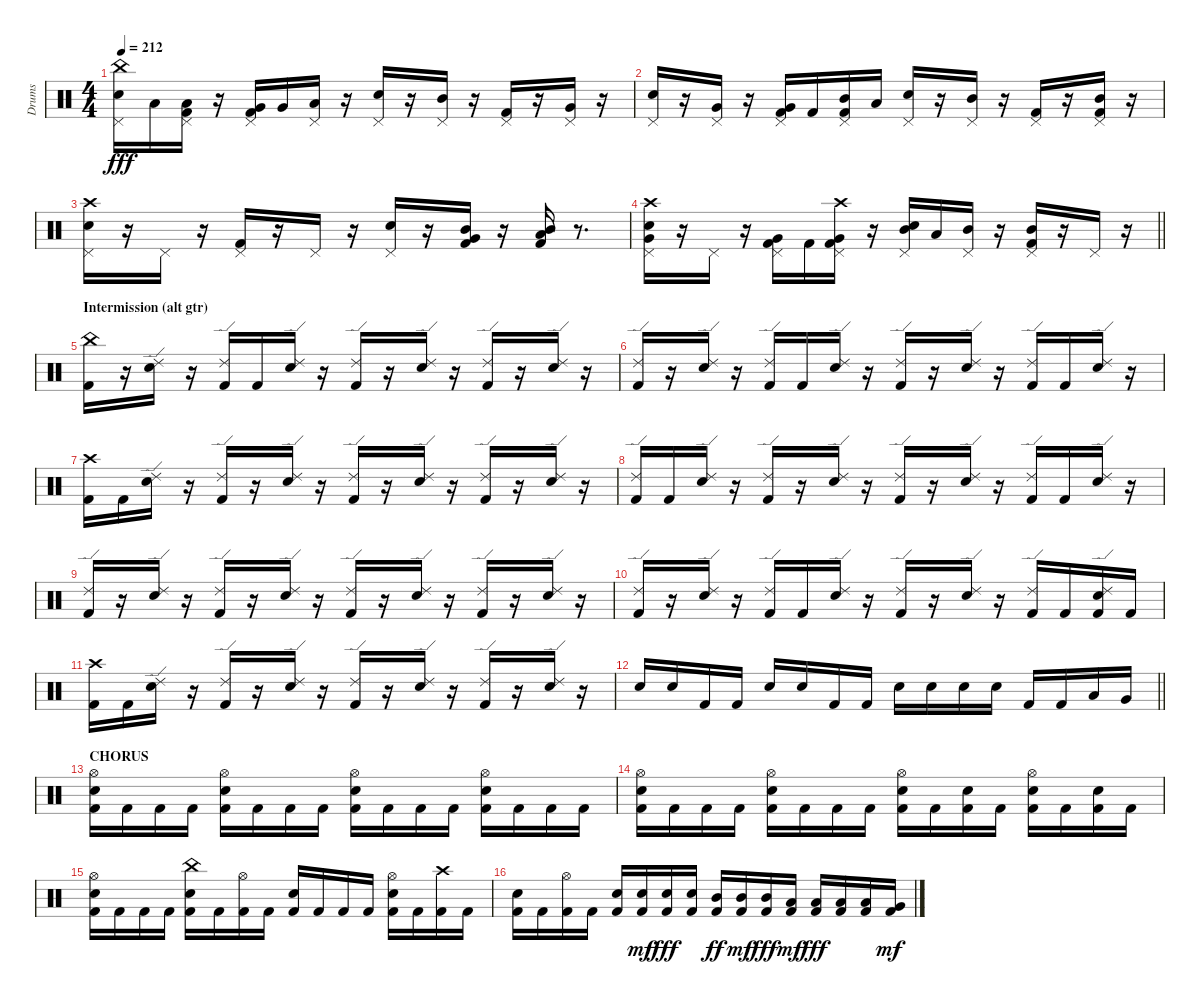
\track ("Drums" "Drums") {instrument percussion}
\staff {score}
\articulation defaults
\ts (4 4)
\tempo 212
\clef neutral
\ks c
("Snare (hit) 2" "Pedal Hi-Hat (hit)" "China (hit)").16{dy fff} "Low Tom (hit)".16 ("Kick (hit) 2" "Pedal Hi-Hat (hit)" "Low Tom (hit)").16 r.16 ("Kick (hit) 2" "Pedal Hi-Hat (hit)" "Very Low Tom (hit)").16 "Very Low Tom (hit)".16 ("Pedal Hi-Hat (hit)" "Low Floor Tom (hit)").16 r.16 ("Snare (hit) 2" "Pedal Hi-Hat (hit)").16 r.16 ("Pedal Hi-Hat (hit)" "Mid Tom (hit)").16 r.16 ("Kick (hit) 2" "Pedal Hi-Hat (hit)").16 r.16 ("Pedal Hi-Hat (hit)" "Very Low Tom (hit)").16 r.16 |
("Snare (hit) 2" "Pedal Hi-Hat (hit)").16 r.16 ("Pedal Hi-Hat (hit)" "Very Low Tom (hit)").16 r.16 ("Kick (hit) 2" "Pedal Hi-Hat (hit)" "Very Low Tom (hit)").16 "Kick (hit) 2".16 ("Kick (hit) 2" "Pedal Hi-Hat (hit)" "Mid Tom (hit)").16 "Low Tom (hit)".16 ("Snare (hit) 2" "Pedal Hi-Hat (hit)").16 r.16 ("Pedal Hi-Hat (hit)" "Mid Tom (hit)").16 r.16 ("Kick (hit) 2" "Pedal Hi-Hat (hit)").16 r.16 ("Kick (hit) 2" "Pedal Hi-Hat (hit)" "Mid Tom (hit)").16 r.16 |
("Snare (hit) 2" "Pedal Hi-Hat (hit)" "Crash high (hit)").16 r.16 "Pedal Hi-Hat (hit)".16 r.16 ("Kick (hit) 2" "Pedal Hi-Hat (hit)").16 r.16 "Pedal Hi-Hat (hit)".16 r.16 ("Snare (hit) 2" "Pedal Hi-Hat (hit)").16 r.16 ("Kick (hit) 2" "Very Low Tom (hit)" "Mid Tom (hit)").16 r.16 ("Kick (hit) 2" "Low Floor Tom (hit)" "Mid Tom (hit)").16 r.8{d} |
\barLineRight lightlight
("Snare (hit) 2" "Pedal Hi-Hat (hit)" "Very Low Tom (hit)" "Crash high (hit)").16 r.16 "Pedal Hi-Hat (hit)".16 r.16 ("Kick (hit) 2" "Pedal Hi-Hat (hit)" "Very Low Tom (hit)").16 "Kick (hit) 2".16 ("Kick (hit) 2" "Pedal Hi-Hat (hit)" "Very Low Tom (hit)" "Crash high (hit)").16 r.16 ("Snare (hit) 2" "Pedal Hi-Hat (hit)" "Mid Tom (hit)").16 "Low Tom (hit)".16 ("Pedal Hi-Hat (hit)" "Mid Tom (hit)").16 r.16 ("Kick (hit) 2" "Pedal Hi-Hat (hit)" "Mid Tom (hit)").16 r.16 "Pedal Hi-Hat (hit)".16 r.16 |
\section ("" "Intermission (alt gtr)")
("Kick (hit) 2" "China (hit)").16 r.16 ("Snare (hit) 2" "Ride (edge) 2").16 r.16 ("Kick (hit) 2" "Ride (edge) 2").16 "Kick (hit) 2".16 ("Snare (hit) 2" "Ride (edge) 2").16 r.16 ("Kick (hit) 2" "Ride (edge) 2").16 r.16 ("Snare (hit) 2" "Ride (edge) 2").16 r.16 ("Kick (hit) 2" "Ride (edge) 2").16 r.16 ("Snare (hit) 2" "Ride (edge) 2").16 r.16 |
("Kick (hit) 2" "Ride (edge) 2").16 r.16 ("Snare (hit) 2" "Ride (edge) 2").16 r.16 ("Kick (hit) 2" "Ride (edge) 2").16 "Kick (hit) 2".16 ("Snare (hit) 2" "Ride (edge) 2").16 r.16 ("Kick (hit) 2" "Ride (edge) 2").16 r.16 ("Snare (hit) 2" "Ride (edge) 2").16 r.16 ("Kick (hit) 2" "Ride (edge) 2").16 "Kick (hit) 2".16 ("Snare (hit) 2" "Ride (edge) 2").16 r.16 |
("Kick (hit) 2" "Crash high (hit)").16 "Kick (hit) 2".16 ("Snare (hit) 2" "Ride (edge) 2").16 r.16 ("Kick (hit) 2" "Ride (edge) 2").16 r.16 ("Snare (hit) 2" "Ride (edge) 2").16 r.16 ("Kick (hit) 2" "Ride (edge) 2").16 r.16 ("Snare (hit) 2" "Ride (edge) 2").16 r.16 ("Kick (hit) 2" "Ride (edge) 2").16 r.16 ("Snare (hit) 2" "Ride (edge) 2").16 r.16 |
("Kick (hit) 2" "Ride (edge) 2").16 "Kick (hit) 2".16 ("Snare (hit) 2" "Ride (edge) 2").16 r.16 ("Kick (hit) 2" "Ride (edge) 2").16 r.16 ("Snare (hit) 2" "Ride (edge) 2").16 r.16 ("Kick (hit) 2" "Ride (edge) 2").16 r.16 ("Snare (hit) 2" "Ride (edge) 2").16 r.16 ("Kick (hit) 2" "Ride (edge) 2").16 "Kick (hit) 2".16 ("Snare (hit) 2" "Ride (edge) 2").16 r.16 |
("Kick (hit) 2" "Ride (edge) 2").16 r.16 ("Snare (hit) 2" "Ride (edge) 2").16 r.16 ("Kick (hit) 2" "Ride (edge) 2").16 r.16 ("Snare (hit) 2" "Ride (edge) 2").16 r.16 ("Kick (hit) 2" "Ride (edge) 2").16 r.16 ("Snare (hit) 2" "Ride (edge) 2").16 r.16 ("Kick (hit) 2" "Ride (edge) 2").16 r.16 ("Snare (hit) 2" "Ride (edge) 2").16 r.16 |
("Kick (hit) 2" "Ride (edge) 2").16 r.16 ("Snare (hit) 2" "Ride (edge) 2").16 r.16 ("Kick (hit) 2" "Ride (edge) 2").16 "Kick (hit) 2".16 ("Snare (hit) 2" "Ride (edge) 2").16 r.16 ("Kick (hit) 2" "Ride (edge) 2").16 r.16 ("Snare (hit) 2" "Ride (edge) 2").16 r.16 ("Kick (hit) 2" "Ride (edge) 2").16 "Kick (hit) 2".16 ("Kick (hit) 2" "Snare (hit) 2" "Ride (edge) 2").16 "Kick (hit) 2".16 |
("Kick (hit) 2" "Crash high (hit)").16 "Kick (hit) 2".16 ("Snare (hit) 2" "Ride (edge) 2").16 r.16 ("Kick (hit) 2" "Ride (edge) 2").16 r.16 ("Snare (hit) 2" "Ride (edge) 2").16 r.16 ("Kick (hit) 2" "Ride (edge) 2").16 r.16 ("Snare (hit) 2" "Ride (edge) 2").16 r.16 ("Kick (hit) 2" "Ride (edge) 2").16 r.16 ("Snare (hit) 2" "Ride (edge) 2").16 r.16 |
\barLineRight lightlight "Snare (hit) 2".16 "Snare (hit) 2".16 "Kick (hit) 2".16 "Kick (hit) 2".16 "Snare (hit) 2".16 "Snare (hit) 2".16 "Kick (hit) 2".16 "Kick (hit) 2".16 "Snare (hit) 2".16 "Snare (hit) 2".16 "Snare (hit) 2".16 "Snare (hit) 2".16 "Kick (hit) 2".16 "Kick (hit) 2".16 "Low Tom (hit)".16 "Very Low Tom (hit)".16
|
\section ("" "CHORUS")
("Kick (hit) 2" "Snare (hit) 2" "Hi-Hat (open)").16 "Kick (hit) 2".16 "Kick (hit) 2".16 "Kick (hit) 2".16 ("Kick (hit) 2" "Snare (hit) 2" "Hi-Hat (open)").16 "Kick (hit) 2".16 "Kick (hit) 2".16 "Kick (hit) 2".16 ("Kick (hit) 2" "Snare (hit) 2" "Hi-Hat (open)").16 "Kick (hit) 2".16 "Kick (hit) 2".16 "Kick (hit) 2".16 ("Kick (hit) 2" "Snare (hit) 2" "Hi-Hat (open)").16 "Kick (hit) 2".16 "Kick (hit) 2".16 "Kick (hit) 2".16 |
("Kick (hit) 2" "Snare (hit) 2" "Hi-Hat (open)").16 "Kick (hit) 2".16 "Kick (hit) 2".16 "Kick (hit) 2".16 ("Kick (hit) 2" "Snare (hit) 2" "Hi-Hat (open)").16 "Kick (hit) 2".16 "Kick (hit) 2".16 "Kick (hit) 2".16 ("Kick (hit) 2" "Snare (hit) 2" "Hi-Hat (open)").16 "Kick (hit) 2".16 ("Kick (hit) 2" "Snare (hit) 2").16 "Kick (hit) 2".16 ("Kick (hit) 2" "Snare (hit) 2" "Hi-Hat (open)").16 "Kick (hit) 2".16 ("Kick (hit) 2" "Snare (hit) 2").16 "Kick (hit) 2".16 |
("Kick (hit) 2" "Snare (hit) 2" "Hi-Hat (open)").16 "Kick (hit) 2".16 "Kick (hit) 2".16 "Kick (hit) 2".16 ("Kick (hit) 2" "Snare (hit) 2" "China (hit)").16 "Kick (hit) 2".16 ("Kick (hit) 2" "Hi-Hat (open)").16 "Kick (hit) 2".16 ("Kick (hit) 2" "Snare (hit) 2").16 "Kick (hit) 2".16 "Kick (hit) 2".16 "Kick (hit) 2".16 ("Kick (hit) 2" "Snare (hit) 2" "Hi-Hat (open)").16 "Kick (hit) 2".16 ("Kick (hit) 2" "Crash high (hit)").16 "Kick (hit) 2".16 |
("Kick (hit) 2" "Snare (hit) 2").16 "Kick (hit) 2".16 ("Kick (hit) 2" "Hi-Hat (open)").16 "Kick (hit) 2".16 ("Kick (hit) 2" "Snare (hit) 2").16 ("Kick (hit) 2" "Snare (hit) 2").16{dy mf} ("Kick (hit) 2" "Snare (hit) 2").16{dy fff} ("Kick (hit) 2" "Snare (hit) 2").16 ("Kick (hit) 2" "Mid Tom (hit)").16{dy ff} ("Kick (hit) 2" "Mid Tom (hit)").16{dy mf} ("Kick (hit) 2" "Mid Tom (hit)").16{dy fff} ("Kick (hit) 2" "Low Tom (hit)").16{dy mf} ("Kick (hit) 2" "Low Tom (hit)").16{dy fff} ("Kick (hit) 2" "Low Tom (hit)").16 ("Kick (hit) 2" "Low Tom (hit)").16 ("Kick (hit) 2" "Very Low Tom (hit)").16{dy mf}
